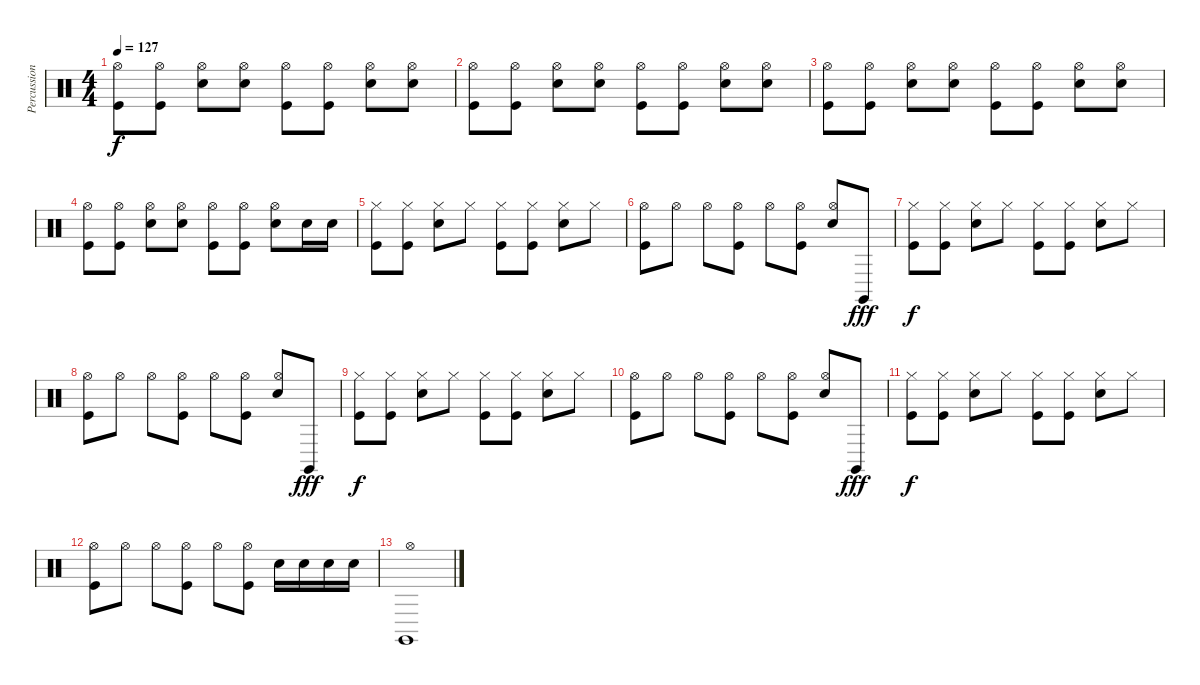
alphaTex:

\track ("Percussion" "Percussion") {instrument percussion}
\staff {score}
\articulation defaults
\ts (4 4)
\tempo 127
\clef neutral
\ks c
("Hi-Hat (open)" "Kick (hit)").8{dy f} ("Hi-Hat (open)" "Kick (hit)").8 ("Hi-Hat (open)" "Snare (hit) 2").8 ("Hi-Hat (open)" "Snare (hit) 2").8 ("Hi-Hat (open)" "Kick (hit)").8 ("Hi-Hat (open)" "Kick (hit)").8 ("Hi-Hat (open)" "Snare (hit) 2").8 ("Hi-Hat (open)" "Snare (hit) 2").8 |
("Hi-Hat (open)" "Kick (hit)").8 ("Hi-Hat (open)" "Kick (hit)").8 ("Hi-Hat (open)" "Snare (hit) 2").8 ("Hi-Hat (open)" "Snare (hit) 2").8 ("Hi-Hat (open)" "Kick (hit)").8 ("Hi-Hat (open)" "Kick (hit)").8 ("Hi-Hat (open)" "Snare (hit) 2").8 ("Hi-Hat (open)" "Snare (hit) 2").8 |
("Hi-Hat (open)" "Kick (hit)").8 ("Hi-Hat (open)" "Kick (hit)").8 ("Hi-Hat (open)" "Snare (hit) 2").8 ("Hi-Hat (open)" "Snare (hit) 2").8 ("Hi-Hat (open)" "Kick (hit)").8 ("Hi-Hat (open)" "Kick (hit)").8 ("Hi-Hat (open)" "Snare (hit) 2").8 ("Hi-Hat (open)" "Snare (hit) 2").8 |
("Hi-Hat (open)" "Kick (hit)").8 ("Hi-Hat (open)" "Kick (hit)").8 ("Hi-Hat (open)" "Snare (hit) 2").8 ("Hi-Hat (open)" "Snare (hit) 2").8 ("Hi-Hat (open)" "Kick (hit)").8 ("Hi-Hat (open)" "Kick (hit)").8 ("Hi-Hat (open)" "Snare (hit) 2").8 "Snare (hit) 2".16 "Snare (hit) 2".16 |
("Hi-Hat (closed)" "Kick (hit)").8 ("Hi-Hat (closed)" "Kick (hit)").8 ("Hi-Hat (closed)" "Snare (hit) 2").8 "Hi-Hat (closed)".8 ("Hi-Hat (closed)" "Kick (hit)").8 ("Hi-Hat (closed)" "Kick (hit)").8 ("Hi-Hat (closed)" "Snare (hit) 2").8 "Hi-Hat (closed)".8 |
("Hi-Hat (open)" "Kick (hit)").8 "Hi-Hat (open)".8 "Hi-Hat (open)".8 ("Hi-Hat (open)" "Kick (hit)").8 "Hi-Hat (open)".8 ("Hi-Hat (open)" "Kick (hit)").8 ("Hi-Hat (open)" "Snare (hit) 2").8 "Claves (hit)".8{dy fff} |
("Hi-Hat (closed)" "Kick (hit)").8{dy f} ("Hi-Hat (closed)" "Kick (hit)").8 ("Hi-Hat (closed)" "Snare (hit) 2").8 "Hi-Hat (closed)".8 ("Hi-Hat (closed)" "Kick (hit)").8 ("Hi-Hat (closed)" "Kick (hit)").8 ("Hi-Hat (closed)" "Snare (hit) 2").8 "Hi-Hat (closed)".8 |
("Hi-Hat (open)" "Kick (hit)").8 "Hi-Hat (open)".8 "Hi-Hat (open)".8 ("Hi-Hat (open)" "Kick (hit)").8 "Hi-Hat (open)".8 ("Hi-Hat (open)" "Kick (hit)").8 ("Hi-Hat (open)" "Snare (hit) 2").8 "Claves (hit)".8{dy fff} |
("Hi-Hat (closed)" "Kick (hit)").8{dy f} ("Hi-Hat (closed)" "Kick (hit)").8 ("Hi-Hat (closed)" "Snare (hit) 2").8 "Hi-Hat (closed)".8 ("Hi-Hat (closed)" "Kick (hit)").8 ("Hi-Hat (closed)" "Kick (hit)").8 ("Hi-Hat (closed)" "Snare (hit) 2").8 "Hi-Hat (closed)".8 |
("Hi-Hat (open)" "Kick (hit)").8 "Hi-Hat (open)".8 "Hi-Hat (open)".8 ("Hi-Hat (open)" "Kick (hit)").8 "Hi-Hat (open)".8 ("Hi-Hat (open)" "Kick (hit)").8 ("Hi-Hat (open)" "Snare (hit) 2").8 "Claves (hit)".8{dy fff} |
("Hi-Hat (closed)" "Kick (hit)").8{dy f} ("Hi-Hat (closed)" "Kick (hit)").8 ("Hi-Hat (closed)" "Snare (hit) 2").8 "Hi-Hat (closed)".8 ("Hi-Hat (closed)" "Kick (hit)").8 ("Hi-Hat (closed)" "Kick (hit)").8 ("Hi-Hat (closed)" "Snare (hit) 2").8 "Hi-Hat (closed)".8 |
("Hi-Hat (open)" "Kick (hit)").8 "Hi-Hat (open)".8 "Hi-Hat (open)".8 ("Hi-Hat (open)" "Kick (hit)").8 "Hi-Hat (open)".8 ("Hi-Hat (open)" "Kick (hit)").8 "Snare (hit) 2".16 "Snare (hit) 2".16 "Snare (hit) 2".16 "Snare (hit) 2".16 |
("Hi-Hat (open)" "Claves (hit)").1
